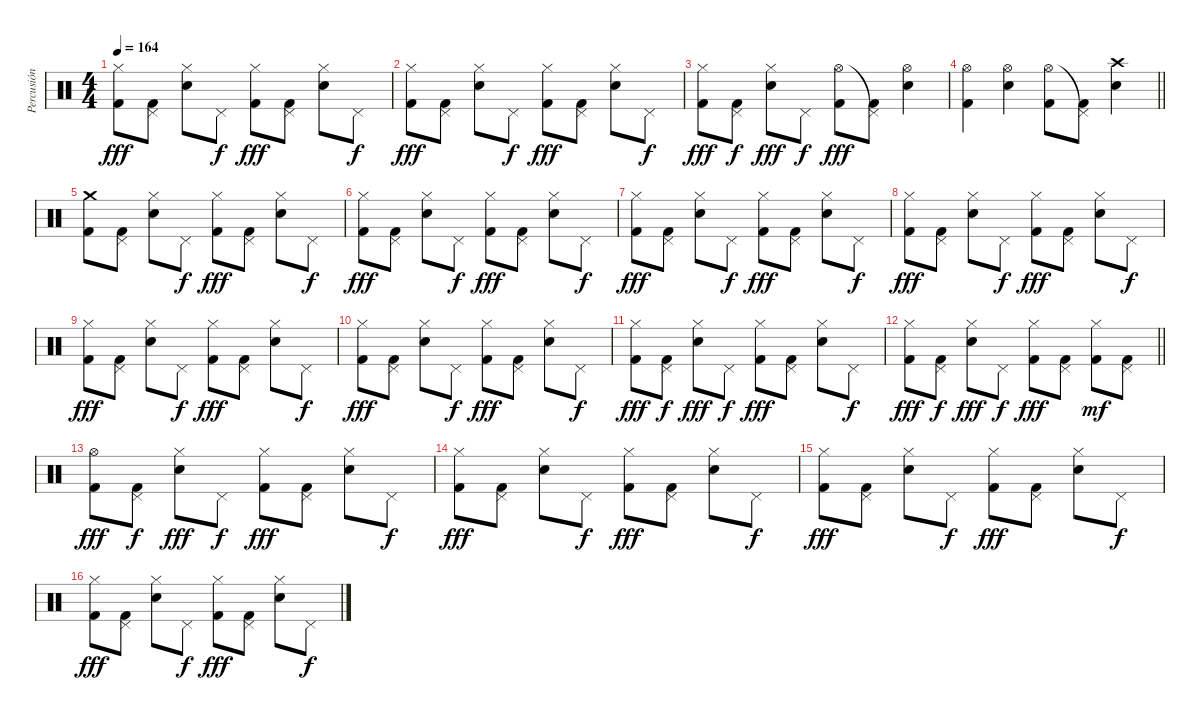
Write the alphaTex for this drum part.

\track ("Percusión" "Percusión") {instrument percussion}
\staff {score}
\articulation defaults
\ts (4 4)
\tempo 164
\clef neutral
\ks c
("Hi-Hat (closed)" "Kick (hit) 2").8{dy fff} ("Pedal Hi-Hat (hit)" "Kick (hit) 2").8 ("Hi-Hat (closed)" "Snare (hit) 2").8 "Pedal Hi-Hat (hit)".8{dy f} ("Hi-Hat (closed)" "Kick (hit) 2").8{dy fff} ("Pedal Hi-Hat (hit)" "Kick (hit) 2").8 ("Hi-Hat (closed)" "Snare (hit) 2").8 "Pedal Hi-Hat (hit)".8{dy f} |
("Hi-Hat (closed)" "Kick (hit) 2").8{dy fff} ("Pedal Hi-Hat (hit)" "Kick (hit) 2").8 ("Hi-Hat (closed)" "Snare (hit) 2").8 "Pedal Hi-Hat (hit)".8{dy f} ("Hi-Hat (closed)" "Kick (hit) 2").8{dy fff} ("Pedal Hi-Hat (hit)" "Kick (hit) 2").8 ("Hi-Hat (closed)" "Snare (hit) 2").8 "Pedal Hi-Hat (hit)".8{dy f} |
("Hi-Hat (closed)" "Kick (hit) 2").8{dy fff} ("Pedal Hi-Hat (hit)" "Kick (hit) 2").8{dy f} ("Hi-Hat (closed)" "Snare (hit) 2").8{dy fff} "Pedal Hi-Hat (hit)".8{dy f} ("Hi-Hat (open)" "Kick (hit) 2").8{dy fff} ("Pedal Hi-Hat (hit)"{t} "Kick (hit) 2").8 ("Hi-Hat (open)" "Snare (hit) 2").4 |
\barLineRight lightlight
("Hi-Hat (open)" "Kick (hit) 2").4 ("Hi-Hat (open)" "Snare (hit) 2").4 ("Hi-Hat (open)" "Kick (hit) 2").8 ("Pedal Hi-Hat (hit)"{t} "Kick (hit) 2").8 ("Crash high (hit)" "Snare (hit) 2").4 |
("Crash medium (hit)" "Kick (hit) 2").8 ("Pedal Hi-Hat (hit)" "Kick (hit) 2").8 ("Hi-Hat (closed)" "Snare (hit) 2").8 "Pedal Hi-Hat (hit)".8{dy f} ("Hi-Hat (closed)" "Kick (hit) 2").8{dy fff} ("Pedal Hi-Hat (hit)" "Kick (hit) 2").8 ("Hi-Hat (closed)" "Snare (hit) 2").8 "Pedal Hi-Hat (hit)".8{dy f} |
("Hi-Hat (closed)" "Kick (hit) 2").8{dy fff} ("Pedal Hi-Hat (hit)" "Kick (hit) 2").8 ("Hi-Hat (closed)" "Snare (hit) 2").8 "Pedal Hi-Hat (hit)".8{dy f} ("Hi-Hat (closed)" "Kick (hit) 2").8{dy fff} ("Pedal Hi-Hat (hit)" "Kick (hit) 2").8 ("Hi-Hat (closed)" "Snare (hit) 2").8 "Pedal Hi-Hat (hit)".8{dy f} |
("Hi-Hat (closed)" "Kick (hit) 2").8{dy fff} ("Pedal Hi-Hat (hit)" "Kick (hit) 2").8 ("Hi-Hat (closed)" "Snare (hit) 2").8 "Pedal Hi-Hat (hit)".8{dy f} ("Hi-Hat (closed)" "Kick (hit) 2").8{dy fff} ("Pedal Hi-Hat (hit)" "Kick (hit) 2").8 ("Hi-Hat (closed)" "Snare (hit) 2").8 "Pedal Hi-Hat (hit)".8{dy f} |
("Hi-Hat (closed)" "Kick (hit) 2").8{dy fff} ("Pedal Hi-Hat (hit)" "Kick (hit) 2").8 ("Hi-Hat (closed)" "Snare (hit) 2").8 "Pedal Hi-Hat (hit)".8{dy f} ("Hi-Hat (closed)" "Kick (hit) 2").8{dy fff} ("Pedal Hi-Hat (hit)" "Kick (hit) 2").8 ("Hi-Hat (closed)" "Snare (hit) 2").8 "Pedal Hi-Hat (hit)".8{dy f} |
("Hi-Hat (closed)" "Kick (hit) 2").8{dy fff} ("Pedal Hi-Hat (hit)" "Kick (hit) 2").8 ("Hi-Hat (closed)" "Snare (hit) 2").8 "Pedal Hi-Hat (hit)".8{dy f} ("Hi-Hat (closed)" "Kick (hit) 2").8{dy fff} ("Pedal Hi-Hat (hit)" "Kick (hit) 2").8 ("Hi-Hat (closed)" "Snare (hit) 2").8 "Pedal Hi-Hat (hit)".8{dy f} |
("Hi-Hat (closed)" "Kick (hit) 2").8{dy fff} ("Pedal Hi-Hat (hit)" "Kick (hit) 2").8 ("Hi-Hat (closed)" "Snare (hit) 2").8 "Pedal Hi-Hat (hit)".8{dy f} ("Hi-Hat (closed)" "Kick (hit) 2").8{dy fff} ("Pedal Hi-Hat (hit)" "Kick (hit) 2").8 ("Hi-Hat (closed)" "Snare (hit) 2").8 "Pedal Hi-Hat (hit)".8{dy f} |
("Hi-Hat (closed)" "Kick (hit) 2").8{dy fff} ("Pedal Hi-Hat (hit)" "Kick (hit) 2").8{dy f} ("Hi-Hat (closed)" "Snare (hit) 2").8{dy fff} "Pedal Hi-Hat (hit)".8{dy f} ("Hi-Hat (closed)" "Kick (hit) 2").8{dy fff} ("Pedal Hi-Hat (hit)" "Kick (hit) 2").8 ("Hi-Hat (closed)" "Snare (hit) 2").8 "Pedal Hi-Hat (hit)".8{dy f} |
\barLineRight lightlight
("Hi-Hat (closed)" "Kick (hit) 2").8{dy fff} ("Pedal Hi-Hat (hit)" "Kick (hit) 2").8{dy f} ("Hi-Hat (closed)" "Snare (hit) 2").8{dy fff} "Pedal Hi-Hat (hit)".8{dy f} ("Hi-Hat (closed)" "Kick (hit) 2").8{dy fff} ("Pedal Hi-Hat (hit)" "Kick (hit) 2").8 ("Hi-Hat (closed)" "Kick (hit) 2").8{dy mf} ("Pedal Hi-Hat (hit)" "Kick (hit) 2").8 |
("Hi-Hat (open)" "Kick (hit) 2").8{dy fff} ("Pedal Hi-Hat (hit)" "Kick (hit) 2").8{dy f} ("Hi-Hat (closed)" "Snare (hit) 2").8{dy fff} "Pedal Hi-Hat (hit)".8{dy f} ("Hi-Hat (closed)" "Kick (hit) 2").8{dy fff} ("Pedal Hi-Hat (hit)" "Kick (hit) 2").8 ("Hi-Hat (closed)" "Snare (hit) 2").8 "Pedal Hi-Hat (hit)".8{dy f} |
("Hi-Hat (closed)" "Kick (hit) 2").8{dy fff} ("Pedal Hi-Hat (hit)" "Kick (hit) 2").8 ("Hi-Hat (closed)" "Snare (hit) 2").8 "Pedal Hi-Hat (hit)".8{dy f} ("Hi-Hat (closed)" "Kick (hit) 2").8{dy fff} ("Pedal Hi-Hat (hit)" "Kick (hit) 2").8 ("Hi-Hat (closed)" "Snare (hit) 2").8 "Pedal Hi-Hat (hit)".8{dy f} |
("Hi-Hat (closed)" "Kick (hit) 2").8{dy fff} ("Pedal Hi-Hat (hit)" "Kick (hit) 2").8 ("Hi-Hat (closed)" "Snare (hit) 2").8 "Pedal Hi-Hat (hit)".8{dy f} ("Hi-Hat (closed)" "Kick (hit) 2").8{dy fff} ("Pedal Hi-Hat (hit)" "Kick (hit) 2").8 ("Hi-Hat (closed)" "Snare (hit) 2").8 "Pedal Hi-Hat (hit)".8{dy f} |
("Hi-Hat (closed)" "Kick (hit) 2").8{dy fff} ("Pedal Hi-Hat (hit)" "Kick (hit) 2").8 ("Hi-Hat (closed)" "Snare (hit) 2").8 "Pedal Hi-Hat (hit)".8{dy f} ("Hi-Hat (closed)" "Kick (hit) 2").8{dy fff} ("Pedal Hi-Hat (hit)" "Kick (hit) 2").8 ("Hi-Hat (closed)" "Snare (hit) 2").8 "Pedal Hi-Hat (hit)".8{dy f}
